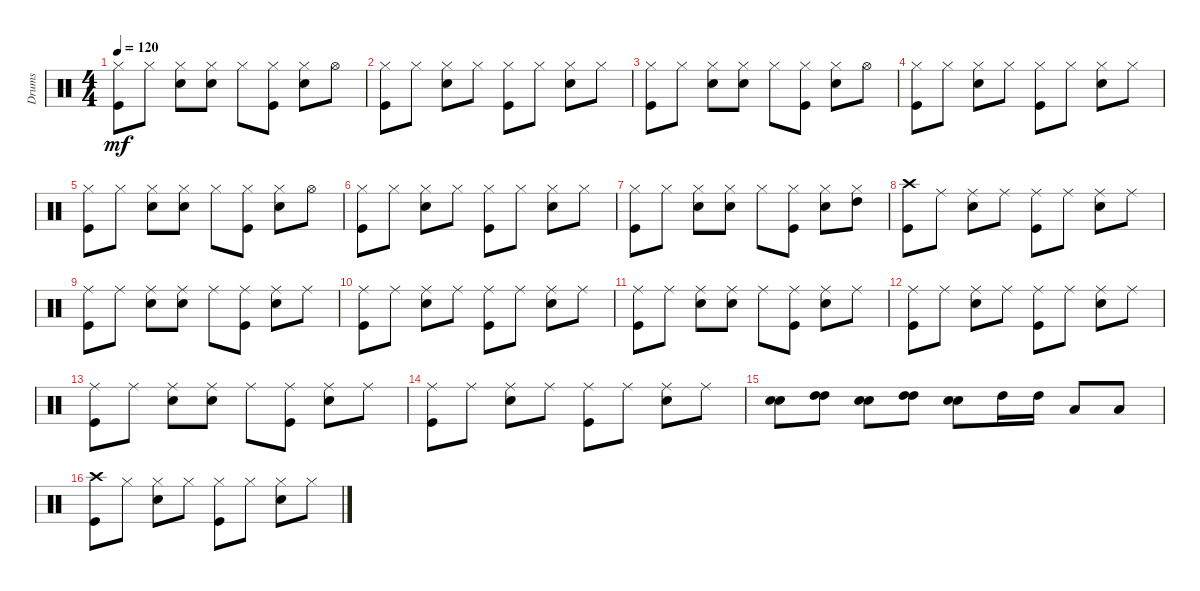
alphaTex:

\track ("Drums" "Drums") {instrument percussion}
\staff {score}
\articulation defaults
\ts (4 4)
\tempo 120
\clef neutral
\ks c
("Hi-Hat (closed)" "Kick (hit)").8{dy mf} "Hi-Hat (closed)".8 ("Snare (hit) 2" "Hi-Hat (closed)").8 ("Snare (hit) 2" "Hi-Hat (closed)").8 "Hi-Hat (closed)".8 ("Hi-Hat (closed)" "Kick (hit)").8 ("Snare (hit) 2" "Hi-Hat (closed)").8 "Hi-Hat (open)".8 |
("Kick (hit)" "Hi-Hat (closed)").8 "Hi-Hat (closed)".8 ("Snare (hit) 2" "Hi-Hat (closed)").8 "Hi-Hat (closed)".8 ("Kick (hit)" "Hi-Hat (closed)").8 "Hi-Hat (closed)".8 ("Snare (hit) 2" "Hi-Hat (closed)").8 "Hi-Hat (closed)".8 |
("Kick (hit)" "Hi-Hat (closed)").8 "Hi-Hat (closed)".8 ("Snare (hit) 2" "Hi-Hat (closed)").8 ("Snare (hit) 2" "Hi-Hat (closed)").8 "Hi-Hat (closed)".8 ("Kick (hit)" "Hi-Hat (closed)").8 ("Snare (hit) 2" "Hi-Hat (closed)").8 "Hi-Hat (open)".8 |
("Kick (hit)" "Hi-Hat (closed)").8 "Hi-Hat (closed)".8 ("Snare (hit) 2" "Hi-Hat (closed)").8 "Hi-Hat (closed)".8 ("Kick (hit)" "Hi-Hat (closed)").8 "Hi-Hat (closed)".8 ("Snare (hit) 2" "Hi-Hat (closed)").8 "Hi-Hat (closed)".8 |
("Kick (hit)" "Hi-Hat (closed)").8 "Hi-Hat (closed)".8 ("Snare (hit) 2" "Hi-Hat (closed)").8 ("Snare (hit) 2" "Hi-Hat (closed)").8 "Hi-Hat (closed)".8 ("Kick (hit)" "Hi-Hat (closed)").8 ("Snare (hit) 2" "Hi-Hat (closed)").8 "Hi-Hat (open)".8 |
("Kick (hit)" "Hi-Hat (closed)").8 "Hi-Hat (closed)".8 ("Snare (hit) 2" "Hi-Hat (closed)").8 "Hi-Hat (closed)".8 ("Kick (hit)" "Hi-Hat (closed)").8 "Hi-Hat (closed)".8 ("Snare (hit) 2" "Hi-Hat (closed)").8 "Hi-Hat (closed)".8 |
("Kick (hit)" "Hi-Hat (closed)").8 "Hi-Hat (closed)".8 ("Snare (hit) 2" "Hi-Hat (closed)").8 ("Snare (hit) 2" "Hi-Hat (closed)").8 "Hi-Hat (closed)".8 ("Kick (hit)" "Hi-Hat (closed)").8 ("Snare (hit) 2" "Hi-Hat (closed)").8 ("High Tom (hit)" "Hi-Hat (closed)").8 |
("Crash high (hit)" "Kick (hit)").8 "Ride (middle)".8 ("Snare (hit) 2" "Ride (middle)").8 "Ride (middle)".8 ("Ride (middle)" "Kick (hit)").8 "Ride (middle)".8 ("Snare (hit) 2" "Ride (middle)").8 "Ride (middle)".8 |
("Ride (middle)" "Kick (hit)").8 "Ride (middle)".8 ("Snare (hit) 2" "Ride (middle)").8 ("Snare (hit) 2" "Ride (middle)").8 "Ride (middle)".8 ("Ride (middle)" "Kick (hit)").8 ("Snare (hit) 2" "Ride (middle)").8 "Ride (middle)".8 |
("Kick (hit)" "Ride (middle)").8 "Ride (middle)".8 ("Snare (hit) 2" "Ride (middle)").8 "Ride (middle)".8 ("Kick (hit)" "Ride (middle)").8 "Ride (middle)".8 ("Snare (hit) 2" "Ride (middle)").8 "Ride (middle)".8 |
("Kick (hit)" "Ride (middle)").8 "Ride (middle)".8 ("Snare (hit) 2" "Ride (middle)").8 ("Snare (hit) 2" "Ride (middle)").8 "Ride (middle)".8 ("Kick (hit)" "Ride (middle)").8 ("Snare (hit) 2" "Ride (middle)").8 "Ride (middle)".8 |
("Kick (hit)" "Ride (middle)").8 "Ride (middle)".8 ("Snare (hit) 2" "Ride (middle)").8 "Ride (middle)".8 ("Kick (hit)" "Ride (middle)").8 "Ride (middle)".8 ("Snare (hit) 2" "Ride (middle)").8 "Ride (middle)".8 |
("Kick (hit)" "Ride (middle)").8 "Ride (middle)".8 ("Snare (hit) 2" "Ride (middle)").8 ("Snare (hit) 2" "Ride (middle)").8 "Ride (middle)".8 ("Kick (hit)" "Ride (middle)").8 ("Snare (hit) 2" "Ride (middle)").8 "Ride (middle)".8 |
("Ride (middle)" "Kick (hit)").8 "Ride (middle)".8 ("Snare (hit) 2" "Ride (middle)").8 "Ride (middle)".8 ("Ride (middle)" "Kick (hit)").8 "Ride (middle)".8 ("Snare (hit) 2" "Ride (middle)").8 "Ride (middle)".8 |
("Snare (hit) 2" "Snare (hit) 2").8 ("High Tom (hit)" "High Tom (hit)").8 ("Snare (hit) 2" "Snare (hit) 2").8 ("High Tom (hit)" "High Tom (hit)").8 ("Snare (hit) 2" "Snare (hit) 2").8 "High Tom (hit)".16 "High Tom (hit)".16 "Low Tom (hit)".8 "Low Floor Tom (hit)".8 |
("Kick (hit)" "Crash high (hit)").8 "Hi-Hat (closed)".8 ("Snare (hit) 2" "Hi-Hat (closed)").8 "Hi-Hat (closed)".8 ("Kick (hit)" "Hi-Hat (closed)").8 "Hi-Hat (closed)".8 ("Snare (hit) 2" "Hi-Hat (closed)").8 "Hi-Hat (closed)".8
